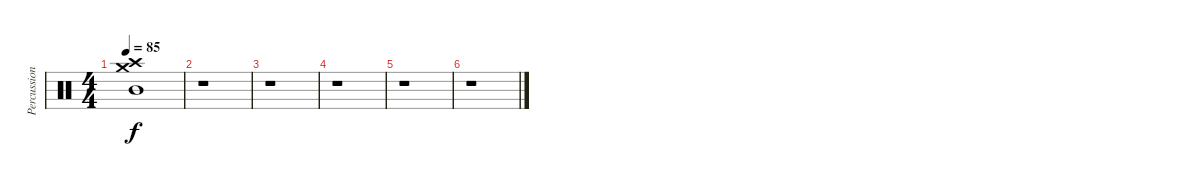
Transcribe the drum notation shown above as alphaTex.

\track ("Percussions" "Percussion") {instrument percussion}
\staff {score}
\articulation defaults
\ts (4 4)
\tempo 85
\clef neutral
\ks c
("Crash medium (hit)" "Crash high (hit)" "Mid Tom (hit)").1{dy f} |
r.1 |
r.1 |
r.1 |
r.1 |
r.1
